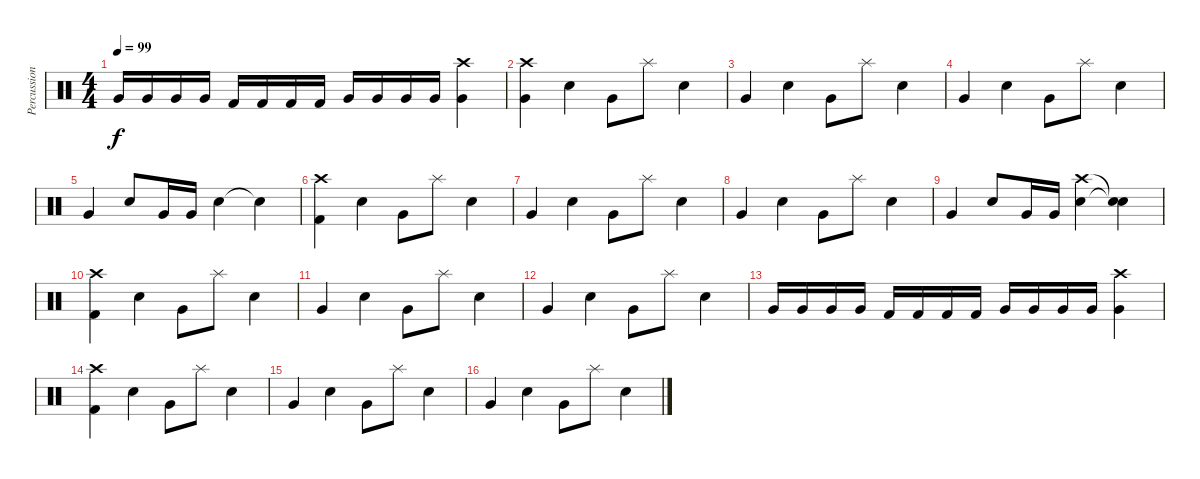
\track ("Percussion" "Percussion") {instrument percussion}
\staff {score}
\articulation defaults
\ts (4 4)
\tempo 99
\clef neutral
\ks c "Very Low Tom (hit)".16{dy f} "Very Low Tom (hit)".16 "Very Low Tom (hit)".16 "Very Low Tom (hit)".16 "Kick (hit) 2".16 "Kick (hit) 2".16 "Kick (hit) 2".16 "Kick (hit) 2".16 "Very Low Tom (hit)".16 "Very Low Tom (hit)".16 "Very Low Tom (hit)".16 "Very Low Tom (hit)".16
("Crash high (hit)" "Very Low Tom (hit)").4 |
("Crash high (hit)" "Very Low Tom (hit)").4 "Electric Snare (hit)".4 "Very Low Tom (hit)".8 "Splash (hit)".8 "Electric Snare (hit)".4 |
"Very Low Tom (hit)".4 "Electric Snare (hit)".4 "Very Low Tom (hit)".8 "Splash (hit)".8 "Electric Snare (hit)".4 |
"Very Low Tom (hit)".4 "Electric Snare (hit)".4 "Very Low Tom (hit)".8 "Splash (hit)".8 "Electric Snare (hit)".4 |
"Very Low Tom (hit)".4 "Electric Snare (hit)".8 "Very Low Tom (hit)".16 "Very Low Tom (hit)".16 "Electric Snare (hit)".4 "Snare (hit)"{t}.4 |
("Crash high (hit)" "Kick (hit) 2").4 "Electric Snare (hit)".4 "Very Low Tom (hit)".8 "Splash (hit)".8 "Electric Snare (hit)".4 |
"Very Low Tom (hit)".4 "Electric Snare (hit)".4 "Very Low Tom (hit)".8 "Splash (hit)".8 "Electric Snare (hit)".4 |
"Very Low Tom (hit)".4 "Electric Snare (hit)".4 "Very Low Tom (hit)".8 "Splash (hit)".8 "Electric Snare (hit)".4 |
"Very Low Tom (hit)".4 "Electric Snare (hit)".8 "Very Low Tom (hit)".16 "Very Low Tom (hit)".16 ("Crash high (hit)" "Electric Snare (hit)").4 ("Snare (hit)"{t} "Snare (hit)"{t}).4 |
("Crash high (hit)" "Kick (hit) 2").4 "Electric Snare (hit)".4 "Very Low Tom (hit)".8 "Splash (hit)".8 "Electric Snare (hit)".4 |
"Very Low Tom (hit)".4 "Electric Snare (hit)".4 "Very Low Tom (hit)".8 "Splash (hit)".8 "Electric Snare (hit)".4 |
"Very Low Tom (hit)".4 "Electric Snare (hit)".4 "Very Low Tom (hit)".8 "Splash (hit)".8 "Electric Snare (hit)".4 |
"Very Low Tom (hit)".16 "Very Low Tom (hit)".16 "Very Low Tom (hit)".16 "Very Low Tom (hit)".16 "Kick (hit) 2".16 "Kick (hit) 2".16 "Kick (hit) 2".16 "Kick (hit) 2".16 "Very Low Tom (hit)".16 "Very Low Tom (hit)".16 "Very Low Tom (hit)".16 "Very Low Tom (hit)".16 ("Crash high (hit)" "Very Low Tom (hit)").4 |
("Crash high (hit)" "Kick (hit) 2").4 "Electric Snare (hit)".4 "Very Low Tom (hit)".8 "Splash (hit)".8 "Electric Snare (hit)".4 |
"Very Low Tom (hit)".4 "Electric Snare (hit)".4 "Very Low Tom (hit)".8 "Splash (hit)".8 "Electric Snare (hit)".4 |
"Very Low Tom (hit)".4 "Electric Snare (hit)".4 "Very Low Tom (hit)".8 "Splash (hit)".8 "Electric Snare (hit)".4
